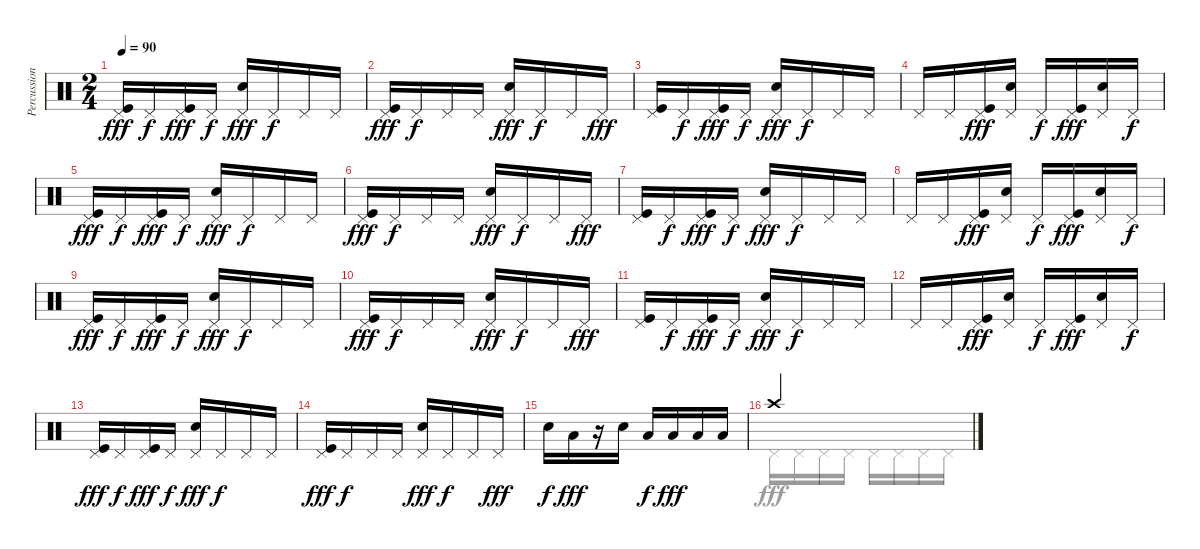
\track ("Percussion" "Percussion") {instrument percussion}
\staff {score}
\articulation defaults
\voice
\ts (2 4)
\tempo 90
\clef neutral
\ks c
("Kick (hit)" "Pedal Hi-Hat (hit)").16{dy fff} "Pedal Hi-Hat (hit)".16{dy f} ("Kick (hit)" "Pedal Hi-Hat (hit)").16{dy fff} "Pedal Hi-Hat (hit)".16{dy f} ("Electric Snare (hit)" "Pedal Hi-Hat (hit)").16{dy fff} "Pedal Hi-Hat (hit)".16{dy f} "Pedal Hi-Hat (hit)".16 "Pedal Hi-Hat (hit)".16 |
("Kick (hit)" "Pedal Hi-Hat (hit)").16{dy fff} "Pedal Hi-Hat (hit)".16{dy f} "Pedal Hi-Hat (hit)".16 "Pedal Hi-Hat (hit)".16 ("Electric Snare (hit)" "Pedal Hi-Hat (hit)").16{dy fff} "Pedal Hi-Hat (hit)".16{dy f} "Pedal Hi-Hat (hit)".16 "Pedal Hi-Hat (hit)".16{dy fff} |
("Kick (hit)" "Pedal Hi-Hat (hit)").16 "Pedal Hi-Hat (hit)".16{dy f} ("Kick (hit)" "Pedal Hi-Hat (hit)").16{dy fff} "Pedal Hi-Hat (hit)".16{dy f} ("Electric Snare (hit)" "Pedal Hi-Hat (hit)").16{dy fff} "Pedal Hi-Hat (hit)".16{dy f} "Pedal Hi-Hat (hit)".16 "Pedal Hi-Hat (hit)".16 |
"Pedal Hi-Hat (hit)".16 "Pedal Hi-Hat (hit)".16 ("Kick (hit)" "Pedal Hi-Hat (hit)").16{dy fff} ("Electric Snare (hit)" "Pedal Hi-Hat (hit)").16 "Pedal Hi-Hat (hit)".16{dy f} ("Kick (hit)" "Pedal Hi-Hat (hit)").16{dy fff} ("Electric Snare (hit)" "Pedal Hi-Hat (hit)").16 "Pedal Hi-Hat (hit)".16{dy f} |
("Kick (hit)" "Pedal Hi-Hat (hit)").16{dy fff} "Pedal Hi-Hat (hit)".16{dy f} ("Kick (hit)" "Pedal Hi-Hat (hit)").16{dy fff} "Pedal Hi-Hat (hit)".16{dy f} ("Electric Snare (hit)" "Pedal Hi-Hat (hit)").16{dy fff} "Pedal Hi-Hat (hit)".16{dy f} "Pedal Hi-Hat (hit)".16 "Pedal Hi-Hat (hit)".16 |
("Kick (hit)" "Pedal Hi-Hat (hit)").16{dy fff} "Pedal Hi-Hat (hit)".16{dy f} "Pedal Hi-Hat (hit)".16 "Pedal Hi-Hat (hit)".16 ("Electric Snare (hit)" "Pedal Hi-Hat (hit)").16{dy fff} "Pedal Hi-Hat (hit)".16{dy f} "Pedal Hi-Hat (hit)".16 "Pedal Hi-Hat (hit)".16{dy fff} |
("Kick (hit)" "Pedal Hi-Hat (hit)").16 "Pedal Hi-Hat (hit)".16{dy f} ("Kick (hit)" "Pedal Hi-Hat (hit)").16{dy fff} "Pedal Hi-Hat (hit)".16{dy f} ("Electric Snare (hit)" "Pedal Hi-Hat (hit)").16{dy fff} "Pedal Hi-Hat (hit)".16{dy f} "Pedal Hi-Hat (hit)".16 "Pedal Hi-Hat (hit)".16 |
"Pedal Hi-Hat (hit)".16 "Pedal Hi-Hat (hit)".16 ("Kick (hit)" "Pedal Hi-Hat (hit)").16{dy fff} ("Electric Snare (hit)" "Pedal Hi-Hat (hit)").16 "Pedal Hi-Hat (hit)".16{dy f} ("Kick (hit)" "Pedal Hi-Hat (hit)").16{dy fff} ("Electric Snare (hit)" "Pedal Hi-Hat (hit)").16 "Pedal Hi-Hat (hit)".16{dy f} |
("Kick (hit)" "Pedal Hi-Hat (hit)").16{dy fff} "Pedal Hi-Hat (hit)".16{dy f} ("Kick (hit)" "Pedal Hi-Hat (hit)").16{dy fff} "Pedal Hi-Hat (hit)".16{dy f} ("Electric Snare (hit)" "Pedal Hi-Hat (hit)").16{dy fff} "Pedal Hi-Hat (hit)".16{dy f} "Pedal Hi-Hat (hit)".16 "Pedal Hi-Hat (hit)".16 |
("Kick (hit)" "Pedal Hi-Hat (hit)").16{dy fff} "Pedal Hi-Hat (hit)".16{dy f} "Pedal Hi-Hat (hit)".16 "Pedal Hi-Hat (hit)".16 ("Electric Snare (hit)" "Pedal Hi-Hat (hit)").16{dy fff} "Pedal Hi-Hat (hit)".16{dy f} "Pedal Hi-Hat (hit)".16 "Pedal Hi-Hat (hit)".16{dy fff} |
("Kick (hit)" "Pedal Hi-Hat (hit)").16 "Pedal Hi-Hat (hit)".16{dy f} ("Kick (hit)" "Pedal Hi-Hat (hit)").16{dy fff} "Pedal Hi-Hat (hit)".16{dy f} ("Electric Snare (hit)" "Pedal Hi-Hat (hit)").16{dy fff} "Pedal Hi-Hat (hit)".16{dy f} "Pedal Hi-Hat (hit)".16 "Pedal Hi-Hat (hit)".16 |
"Pedal Hi-Hat (hit)".16 "Pedal Hi-Hat (hit)".16 ("Kick (hit)" "Pedal Hi-Hat (hit)").16{dy fff} ("Electric Snare (hit)" "Pedal Hi-Hat (hit)").16 "Pedal Hi-Hat (hit)".16{dy f} ("Kick (hit)" "Pedal Hi-Hat (hit)").16{dy fff} ("Electric Snare (hit)" "Pedal Hi-Hat (hit)").16 "Pedal Hi-Hat (hit)".16{dy f} |
("Kick (hit)" "Pedal Hi-Hat (hit)").16{dy fff} "Pedal Hi-Hat (hit)".16{dy f} ("Kick (hit)" "Pedal Hi-Hat (hit)").16{dy fff} "Pedal Hi-Hat (hit)".16{dy f} ("Electric Snare (hit)" "Pedal Hi-Hat (hit)").16{dy fff} "Pedal Hi-Hat (hit)".16{dy f} "Pedal Hi-Hat (hit)".16 "Pedal Hi-Hat (hit)".16 |
("Kick (hit)" "Pedal Hi-Hat (hit)").16{dy fff} "Pedal Hi-Hat (hit)".16{dy f} "Pedal Hi-Hat (hit)".16 "Pedal Hi-Hat (hit)".16 ("Electric Snare (hit)" "Pedal Hi-Hat (hit)").16{dy fff} "Pedal Hi-Hat (hit)".16{dy f} "Pedal Hi-Hat (hit)".16 "Pedal Hi-Hat (hit)".16{dy fff} |
"Snare (hit) 2".16{dy f} "Low Floor Tom (hit)".16{dy fff} r.16 "Snare (hit) 2".16 "Low Floor Tom (hit)".16{dy f} "Low Floor Tom (hit)".16{dy fff} "Low Floor Tom (hit)".16 "Low Floor Tom (hit)".16 |
"Crash high (hit)".2
\voice
\clef neutral
\ottava regular
\simile none
\ks c
|
|
|
|
|
|
|
|
|
|
|
|
|
|
|
"Pedal Hi-Hat (hit)".16 "Pedal Hi-Hat (hit)".16 "Pedal Hi-Hat (hit)".16 "Pedal Hi-Hat (hit)".16 "Pedal Hi-Hat (hit)".16 "Pedal Hi-Hat (hit)".16 "Pedal Hi-Hat (hit)".16 "Pedal Hi-Hat (hit)".16
